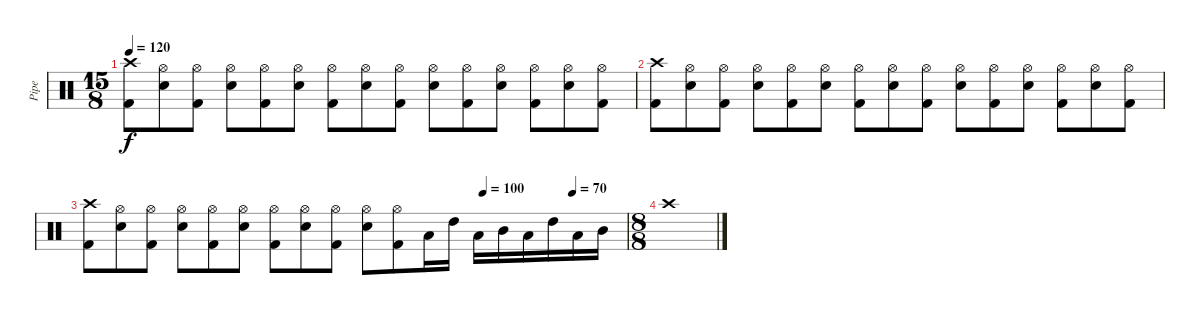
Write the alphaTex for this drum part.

\track ("Pipe" "Pipe") {instrument percussion}
\staff {score}
\articulation defaults
\ts (15 8)
\tempo 120
\clef neutral
\ks c
("Kick (hit) 2" "Crash high (hit)").8{dy f} ("Snare (hit) 2" "Hi-Hat (open)").8 ("Kick (hit) 2" "Hi-Hat (open)").8 ("Snare (hit) 2" "Hi-Hat (open)").8 ("Kick (hit) 2" "Hi-Hat (open)").8 ("Snare (hit) 2" "Hi-Hat (open)").8 ("Kick (hit) 2" "Hi-Hat (open)").8 ("Snare (hit) 2" "Hi-Hat (open)").8 ("Kick (hit) 2" "Hi-Hat (open)").8 ("Snare (hit) 2" "Hi-Hat (open)").8 ("Kick (hit) 2" "Hi-Hat (open)").8 ("Snare (hit) 2" "Hi-Hat (open)").8 ("Kick (hit) 2" "Hi-Hat (open)").8 ("Snare (hit) 2" "Hi-Hat (open)").8 ("Kick (hit) 2" "Hi-Hat (open)").8 |
("Kick (hit) 2" "Crash high (hit)").8 ("Snare (hit) 2" "Hi-Hat (open)").8 ("Kick (hit) 2" "Hi-Hat (open)").8 ("Snare (hit) 2" "Hi-Hat (open)").8 ("Kick (hit) 2" "Hi-Hat (open)").8 ("Snare (hit) 2" "Hi-Hat (open)").8 ("Kick (hit) 2" "Hi-Hat (open)").8 ("Snare (hit) 2" "Hi-Hat (open)").8 ("Kick (hit) 2" "Hi-Hat (open)").8 ("Snare (hit) 2" "Hi-Hat (open)").8 ("Kick (hit) 2" "Hi-Hat (open)").8 ("Snare (hit) 2" "Hi-Hat (open)").8 ("Kick (hit) 2" "Hi-Hat (open)").8 ("Snare (hit) 2" "Hi-Hat (open)").8 ("Kick (hit) 2" "Hi-Hat (open)").8 |
\tempo (100 0.7333333333333333)
\tempo (70 0.9)
("Kick (hit) 2" "Crash high (hit)").8 ("Snare (hit) 2" "Hi-Hat (open)").8 ("Kick (hit) 2" "Hi-Hat (open)").8 ("Snare (hit) 2" "Hi-Hat (open)").8 ("Kick (hit) 2" "Hi-Hat (open)").8 ("Snare (hit) 2" "Hi-Hat (open)").8 ("Kick (hit) 2" "Hi-Hat (open)").8 ("Snare (hit) 2" "Hi-Hat (open)").8 ("Kick (hit) 2" "Hi-Hat (open)").8 ("Snare (hit) 2" "Hi-Hat (open)").8 ("Kick (hit) 2" "Hi-Hat (open)").8 "Low Tom (hit)".16 "High Tom (hit)".16 "Low Tom (hit)".16 "Mid Tom (hit)".16 "Low Tom (hit)".16 "High Tom (hit)".16 "Low Tom (hit)".16 "Mid Tom (hit)".16 |
\ts (8 8)
"Crash high (hit)".1
